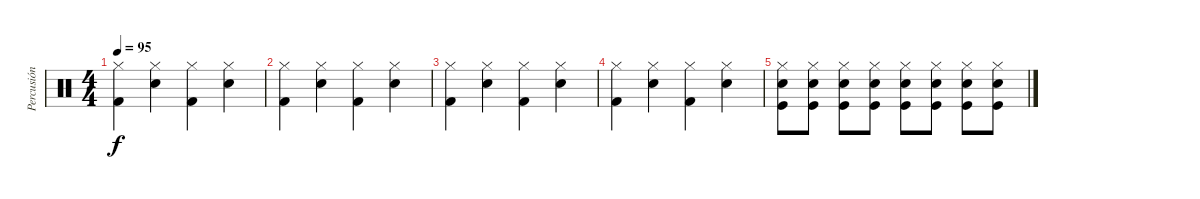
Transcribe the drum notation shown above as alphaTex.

\track ("Percusión" "Percusión") {instrument percussion}
\staff {score}
\articulation defaults
\ts (4 4)
\tempo 95
\clef neutral
\ks c
("Hi-Hat (closed)" "Kick (hit) 2").4{dy f} ("Hi-Hat (closed)" "Snare (hit) 2").4 ("Hi-Hat (closed)" "Kick (hit) 2").4 ("Hi-Hat (closed)" "Snare (hit) 2").4 |
("Hi-Hat (closed)" "Kick (hit) 2").4 ("Hi-Hat (closed)" "Snare (hit) 2").4 ("Hi-Hat (closed)" "Kick (hit) 2").4 ("Hi-Hat (closed)" "Snare (hit) 2").4 |
("Hi-Hat (closed)" "Kick (hit) 2").4 ("Hi-Hat (closed)" "Snare (hit) 2").4 ("Hi-Hat (closed)" "Kick (hit) 2").4 ("Hi-Hat (closed)" "Snare (hit) 2").4 |
("Hi-Hat (closed)" "Kick (hit) 2").4 ("Hi-Hat (closed)" "Snare (hit) 2").4 ("Hi-Hat (closed)" "Kick (hit) 2").4 ("Hi-Hat (closed)" "Snare (hit) 2").4 |
("Hi-Hat (closed)" "Snare (hit) 2" "Kick (hit)").8 ("Hi-Hat (closed)" "Snare (hit) 2" "Kick (hit)").8 ("Hi-Hat (closed)" "Snare (hit) 2" "Kick (hit)").8 ("Hi-Hat (closed)" "Snare (hit) 2" "Kick (hit)").8 ("Hi-Hat (closed)" "Snare (hit) 2" "Kick (hit)").8 ("Hi-Hat (closed)" "Snare (hit) 2" "Kick (hit)").8 ("Hi-Hat (closed)" "Snare (hit) 2" "Kick (hit)").8 ("Hi-Hat (closed)" "Snare (hit) 2" "Kick (hit)").8
